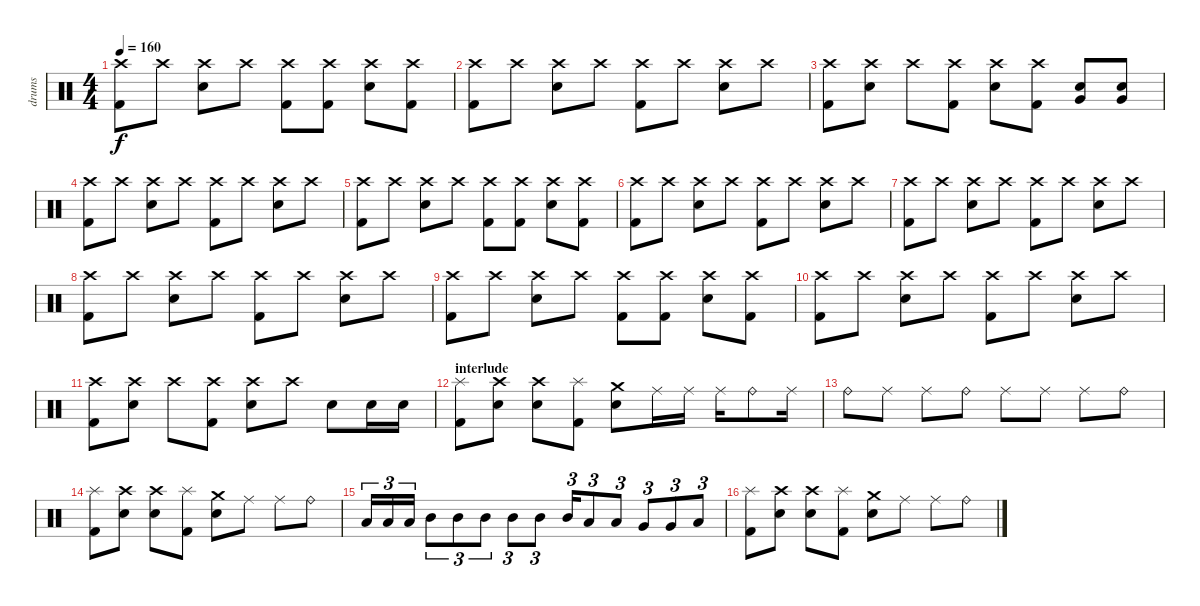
\track ("drums" "drums") {instrument percussion}
\staff {score}
\articulation defaults
\ts (4 4)
\tempo 160
\clef neutral
\ks c
("Crash high (hit)" "Kick (hit) 2").8{dy f} "Crash high (hit)".8 ("Crash high (hit)" "Electric Snare (hit)").8 "Crash high (hit)".8 ("Crash high (hit)" "Kick (hit) 2").8 ("Crash high (hit)" "Kick (hit) 2").8 ("Crash high (hit)" "Electric Snare (hit)").8 ("Crash high (hit)" "Kick (hit) 2").8 |
("Crash high (hit)" "Kick (hit) 2").8 "Crash high (hit)".8 ("Crash high (hit)" "Electric Snare (hit)").8 "Crash high (hit)".8 ("Crash high (hit)" "Kick (hit) 2").8 "Crash high (hit)".8 ("Crash high (hit)" "Electric Snare (hit)").8 "Crash high (hit)".8 |
("Crash high (hit)" "Kick (hit) 2").8 ("Crash high (hit)" "Electric Snare (hit)").8 "Crash high (hit)".8 ("Crash high (hit)" "Kick (hit) 2").8 ("Crash high (hit)" "Electric Snare (hit)").8 ("Crash high (hit)" "Kick (hit) 2").8 ("Very Low Tom (hit)" "Electric Snare (hit)").8 ("Very Low Tom (hit)" "Electric Snare (hit)").8 |
("Crash high (hit)" "Kick (hit) 2").8 "Crash high (hit)".8 ("Crash high (hit)" "Electric Snare (hit)").8 "Crash high (hit)".8 ("Crash high (hit)" "Kick (hit) 2").8 "Crash high (hit)".8 ("Crash high (hit)" "Electric Snare (hit)").8 "Crash high (hit)".8 |
("Crash high (hit)" "Kick (hit) 2").8 "Crash high (hit)".8 ("Crash high (hit)" "Electric Snare (hit)").8 "Crash high (hit)".8 ("Crash high (hit)" "Kick (hit) 2").8 ("Crash high (hit)" "Kick (hit) 2").8 ("Crash high (hit)" "Electric Snare (hit)").8 ("Crash high (hit)" "Kick (hit) 2").8 |
("Crash high (hit)" "Kick (hit) 2").8 "Crash high (hit)".8 ("Crash high (hit)" "Electric Snare (hit)").8 "Crash high (hit)".8 ("Crash high (hit)" "Kick (hit) 2").8 "Crash high (hit)".8 ("Crash high (hit)" "Electric Snare (hit)").8 "Crash high (hit)".8 |
("Crash high (hit)" "Kick (hit) 2").8 "Crash high (hit)".8 ("Crash high (hit)" "Electric Snare (hit)").8 "Crash high (hit)".8 ("Crash high (hit)" "Kick (hit) 2").8 "Crash high (hit)".8 ("Crash high (hit)" "Electric Snare (hit)").8 "Crash high (hit)".8 |
("Crash high (hit)" "Kick (hit) 2").8 "Crash high (hit)".8 ("Crash high (hit)" "Electric Snare (hit)").8 "Crash high (hit)".8 ("Crash high (hit)" "Kick (hit) 2").8 "Crash high (hit)".8 ("Crash high (hit)" "Electric Snare (hit)").8 "Crash high (hit)".8 |
("Crash high (hit)" "Kick (hit) 2").8 "Crash high (hit)".8 ("Crash high (hit)" "Electric Snare (hit)").8 "Crash high (hit)".8 ("Crash high (hit)" "Kick (hit) 2").8 ("Crash high (hit)" "Kick (hit) 2").8 ("Crash high (hit)" "Electric Snare (hit)").8 ("Crash high (hit)" "Kick (hit) 2").8 |
("Crash high (hit)" "Kick (hit) 2").8 "Crash high (hit)".8 ("Crash high (hit)" "Electric Snare (hit)").8 "Crash high (hit)".8 ("Crash high (hit)" "Kick (hit) 2").8 "Crash high (hit)".8 ("Crash high (hit)" "Electric Snare (hit)").8 "Crash high (hit)".8 |
("Crash high (hit)" "Kick (hit) 2").8 ("Crash high (hit)" "Electric Snare (hit)").8 "Crash high (hit)".8 ("Crash high (hit)" "Kick (hit) 2").8 ("Crash high (hit)" "Electric Snare (hit)").8 "Crash high (hit)".8 "Electric Snare (hit)".8 "Electric Snare (hit)".16 "Electric Snare (hit)".16 |
\section ("" "interlude")
("Splash (hit)" "Kick (hit) 2").8 ("Crash high (hit)" "Electric Snare (hit)").8 ("Crash high (hit)" "Electric Snare (hit)").8 ("Splash (hit)" "Kick (hit) 2").8 ("Crash medium (hit)" "Electric Snare (hit)").8 "Ride (middle)".16 "Ride (middle)".16 "Ride (middle)".16 "Ride (bell)".8 "Ride (middle)".16 |
"Ride (bell)".8 "Ride (middle)".8 "Ride (middle)".8 "Ride (bell)".8 "Ride (middle)".8 "Ride (middle)".8 "Ride (middle)".8 "Ride (bell)".8 |
("Splash (hit)" "Kick (hit) 2").8 ("Crash high (hit)" "Electric Snare (hit)").8 ("Crash high (hit)" "Electric Snare (hit)").8 ("Splash (hit)" "Kick (hit) 2").8 ("Crash medium (hit)" "Electric Snare (hit)").8 "Ride (middle)".8 "Ride (middle)".8 "Ride (bell)".8 |
"Low Tom (hit)".16{tu (3 2)} "Low Tom (hit)".16{tu (3 2)} "Low Tom (hit)".16{tu (3 2)} "Mid Tom (hit)".8{tu (3 2)} "Mid Tom (hit)".8{tu (3 2)} "Mid Tom (hit)".8{tu (3 2)} "Mid Tom (hit)".8{tu (3 2)} "Mid Tom (hit)".8{tu (3 2)} "Mid Tom (hit)".16{tu (3 2)} "Low Tom (hit)".8{tu (3 2)} "Low Tom (hit)".8{tu (3 2)} "Very Low Tom (hit)".8{tu (3 2)} "Very Low Tom (hit)".8{tu (3 2)} "Low Floor Tom (hit)".8{tu (3 2)} |
("Splash (hit)" "Kick (hit) 2").8 ("Crash high (hit)" "Electric Snare (hit)").8 ("Crash high (hit)" "Electric Snare (hit)").8 ("Splash (hit)" "Kick (hit) 2").8 ("Crash medium (hit)" "Electric Snare (hit)").8 "Ride (middle)".8 "Ride (middle)".8 "Ride (bell)".8
